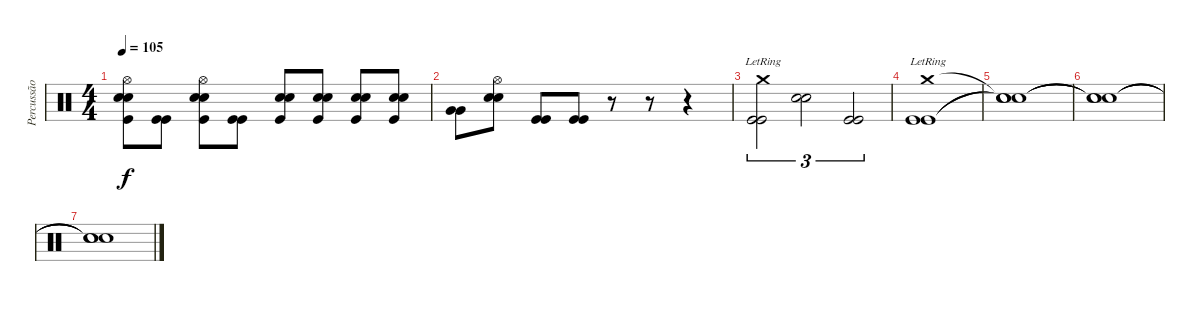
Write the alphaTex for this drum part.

\track ("Percussão" "Percussão") {instrument percussion}
\staff {score}
\articulation defaults
\ts (4 4)
\tempo 105
\clef neutral
\ks c
("Hi-Hat (open)" "Electric Snare (hit)" "Electric Snare (hit)" "Kick (hit)").8{dy f} ("Kick (hit)" "Kick (hit)").8 ("Hi-Hat (open)" "Electric Snare (hit)" "Electric Snare (hit)" "Kick (hit)").8 ("Kick (hit)" "Kick (hit)").8 ("Electric Snare (hit)" "Electric Snare (hit)" "Kick (hit)").8 ("Electric Snare (hit)" "Electric Snare (hit)" "Kick (hit)").8 ("Electric Snare (hit)" "Electric Snare (hit)" "Kick (hit)").8 ("Electric Snare (hit)" "Electric Snare (hit)" "Kick (hit)").8 |
("Very Low Tom (hit)" "Very Low Tom (hit)").8 ("Hi-Hat (open)" "Electric Snare (hit)" "Electric Snare (hit)").8 ("Kick (hit)" "Kick (hit)").8 ("Kick (hit)" "Kick (hit)").8 r.8 r.8 r.4 |
("Crash medium (hit)"{lr} "Kick (hit)" "Kick (hit)").2{tu (3 2)} ("Electric Snare (hit)" "Electric Snare (hit)").2{tu (3 2)} ("Kick (hit)" "Kick (hit)").2{tu (3 2)} |
("Crash medium (hit)"{lr} "Kick (hit)" "Kick (hit)").1 |
("Snare (hit)"{t} "Snare (hit)"{t} "Snare (hit)"{t}).1 |
("Snare (hit)"{t} "Snare (hit)"{t} "Snare (hit)"{t}).1 |
("Snare (hit)"{t} "Snare (hit)"{t} "Snare (hit)"{t}).1
